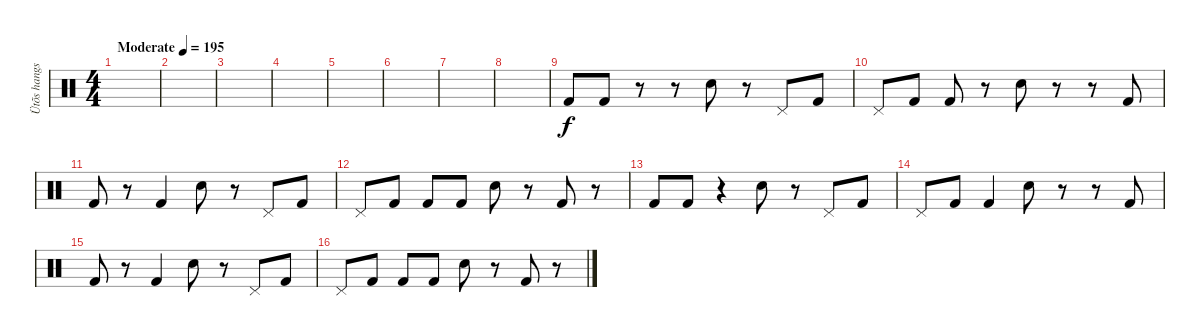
\track ("Ütõs hangszer" "Ütõs hangs") {instrument percussion}
\staff {score}
\articulation defaults
\ts (4 4)
\tempo (195 "Moderate")
\clef neutral
\ks c
|
|
|
|
|
|
|
|
"Kick (hit) 2".8 "Kick (hit) 2".8 r.8 r.8 "Electric Snare (hit)".8 r.8 "Pedal Hi-Hat (hit)".8 "Kick (hit) 2".8 |
"Pedal Hi-Hat (hit)".8 "Kick (hit) 2".8 "Kick (hit) 2".8 r.8 "Electric Snare (hit)".8 r.8 r.8 "Kick (hit) 2".8 |
"Kick (hit) 2".8 r.8 "Kick (hit) 2".4 "Electric Snare (hit)".8 r.8 "Pedal Hi-Hat (hit)".8 "Kick (hit) 2".8 |
"Pedal Hi-Hat (hit)".8 "Kick (hit) 2".8 "Kick (hit) 2".8 "Kick (hit) 2".8 "Electric Snare (hit)".8 r.8 "Kick (hit) 2".8 r.8 |
"Kick (hit) 2".8 "Kick (hit) 2".8 r.4 "Electric Snare (hit)".8 r.8 "Pedal Hi-Hat (hit)".8 "Kick (hit) 2".8 |
"Pedal Hi-Hat (hit)".8 "Kick (hit) 2".8 "Kick (hit) 2".4 "Electric Snare (hit)".8 r.8 r.8 "Kick (hit) 2".8 |
"Kick (hit) 2".8 r.8 "Kick (hit) 2".4 "Electric Snare (hit)".8 r.8 "Pedal Hi-Hat (hit)".8 "Kick (hit) 2".8 |
"Pedal Hi-Hat (hit)".8 "Kick (hit) 2".8 "Kick (hit) 2".8 "Kick (hit) 2".8 "Electric Snare (hit)".8 r.8 "Kick (hit) 2".8 r.8
